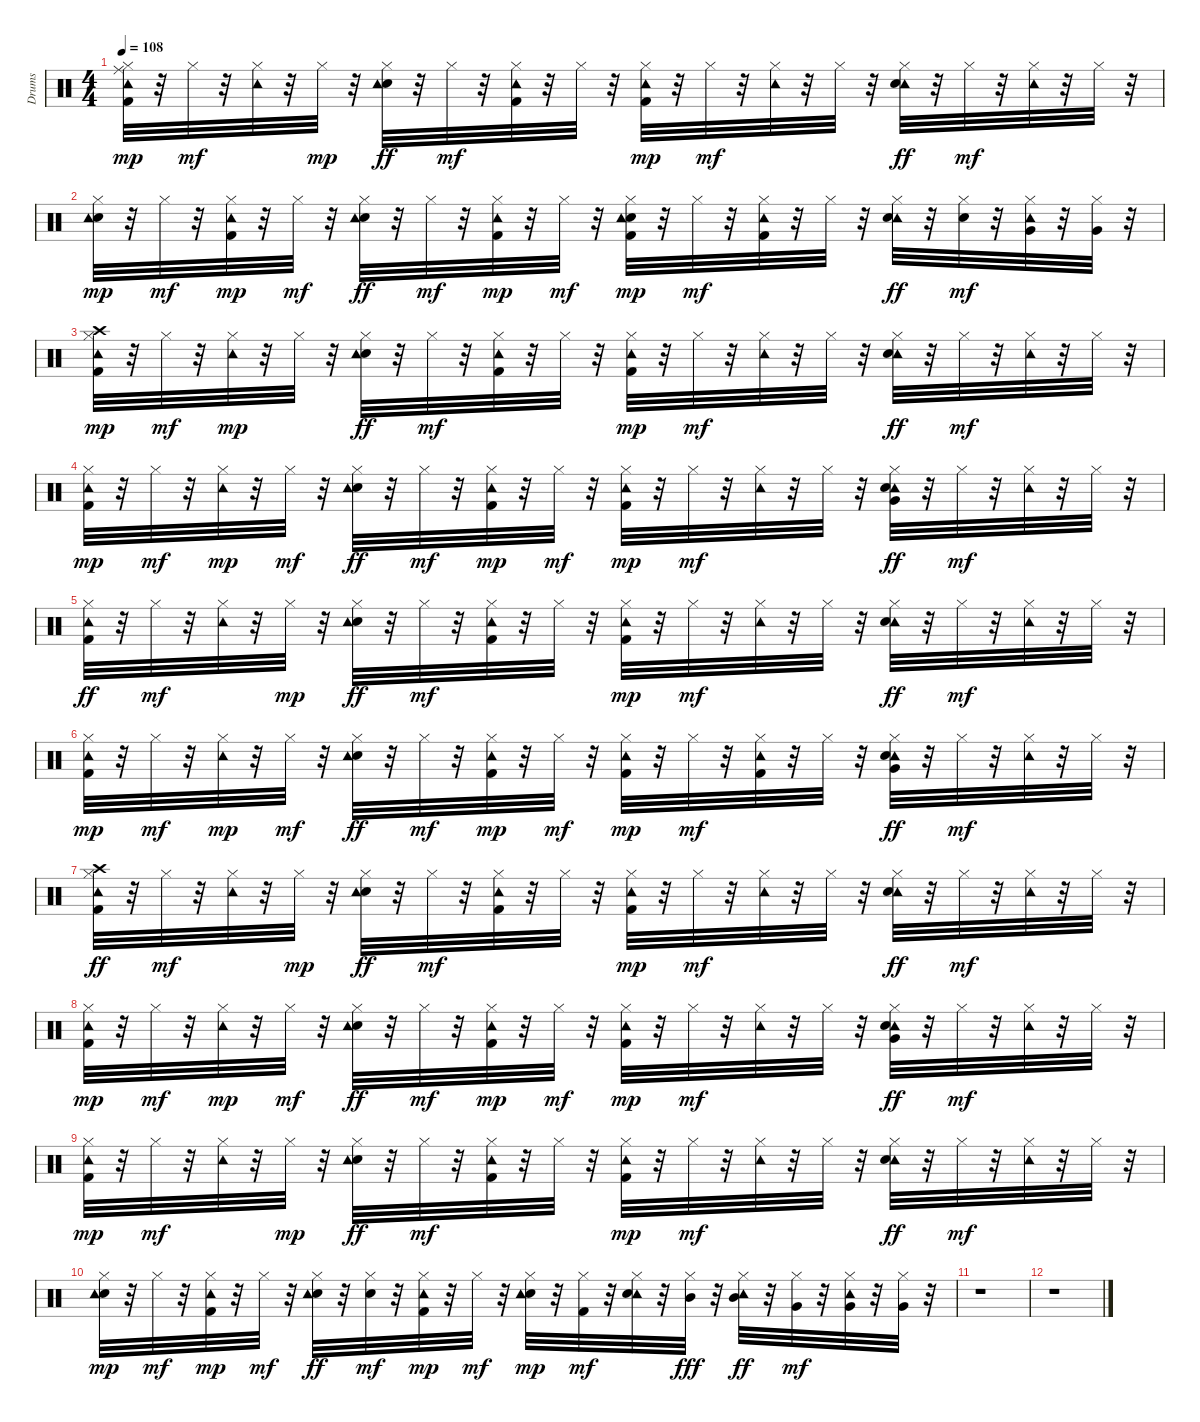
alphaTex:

\track ("Drums               " "Drums     ") {instrument percussion}
\staff {score}
\articulation defaults
\ts (4 4)
\tempo 108
\clef neutral
\ks c
("Kick (hit) 2" "Hi-Hat (closed)" "Ride (middle)" "Tambourine (hit)").32{dy mp} r.32 "Hi-Hat (closed)".32{dy mf} r.32 ("Tambourine (hit)" "Hi-Hat (closed)").32 r.32 "Hi-Hat (closed)".32{dy mp} r.32 ("Snare (hit) 2" "Hi-Hat (closed)" "Tambourine (hit)").32{dy ff} r.32 "Hi-Hat (closed)".32{dy mf} r.32 ("Tambourine (hit)" "Kick (hit) 2" "Hi-Hat (closed)").32 r.32 "Hi-Hat (closed)".32 r.32 ("Kick (hit) 2" "Hi-Hat (closed)" "Tambourine (hit)").32{dy mp} r.32 "Hi-Hat (closed)".32{dy mf} r.32 ("Tambourine (hit)" "Hi-Hat (closed)").32 r.32 "Hi-Hat (closed)".32 r.32 ("Tambourine (hit)" "Snare (hit) 2" "Hi-Hat (closed)").32{dy ff} r.32 "Hi-Hat (closed)".32{dy mf} r.32 ("Tambourine (hit)" "Hi-Hat (closed)").32 r.32 "Hi-Hat (closed)".32 r.32 |
("Hi-Hat (closed)" "Snare (hit) 2" "Tambourine (hit)").32{dy mp} r.32 "Hi-Hat (closed)".32{dy mf} r.32 ("Kick (hit) 2" "Hi-Hat (closed)" "Tambourine (hit)").32{dy mp} r.32 "Hi-Hat (closed)".32{dy mf} r.32 ("Snare (hit) 2" "Hi-Hat (closed)" "Tambourine (hit)").32{dy ff} r.32 "Hi-Hat (closed)".32{dy mf} r.32 ("Kick (hit) 2" "Hi-Hat (closed)" "Tambourine (hit)").32{dy mp} r.32 "Hi-Hat (closed)".32{dy mf} r.32 ("Kick (hit) 2" "Snare (hit) 2" "Hi-Hat (closed)" "Tambourine (hit)").32{dy mp} r.32 "Hi-Hat (closed)".32{dy mf} r.32 ("Tambourine (hit)" "Kick (hit) 2" "Hi-Hat (closed)").32 r.32 "Hi-Hat (closed)".32 r.32 ("Tambourine (hit)" "Snare (hit) 2" "Hi-Hat (closed)").32{dy ff} r.32 ("Snare (hit) 2" "Hi-Hat (closed)").32{dy mf} r.32 ("Tambourine (hit)" "Very Low Tom (hit)" "Hi-Hat (closed)").32 r.32 ("Very Low Tom (hit)" "Hi-Hat (closed)").32 r.32 |
("Kick (hit) 2" "Hi-Hat (closed)" "Crash high (hit)" "Tambourine (hit)").32{dy mp} r.32 "Hi-Hat (closed)".32{dy mf} r.32 ("Hi-Hat (closed)" "Tambourine (hit)").32{dy mp} r.32 "Hi-Hat (closed)".32 r.32 ("Snare (hit) 2" "Hi-Hat (closed)" "Tambourine (hit)").32{dy ff} r.32 "Hi-Hat (closed)".32{dy mf} r.32 ("Tambourine (hit)" "Kick (hit) 2" "Hi-Hat (closed)").32 r.32 "Hi-Hat (closed)".32 r.32 ("Kick (hit) 2" "Hi-Hat (closed)" "Tambourine (hit)").32{dy mp} r.32 "Hi-Hat (closed)".32{dy mf} r.32 ("Tambourine (hit)" "Hi-Hat (closed)").32 r.32 "Hi-Hat (closed)".32 r.32 ("Tambourine (hit)" "Snare (hit) 2" "Hi-Hat (closed)").32{dy ff} r.32 "Hi-Hat (closed)".32{dy mf} r.32 ("Tambourine (hit)" "Hi-Hat (closed)").32 r.32 "Hi-Hat (closed)".32 r.32 |
("Kick (hit) 2" "Hi-Hat (closed)" "Tambourine (hit)").32{dy mp} r.32 "Hi-Hat (closed)".32{dy mf} r.32 ("Hi-Hat (closed)" "Tambourine (hit)").32{dy mp} r.32 "Hi-Hat (closed)".32{dy mf} r.32 ("Snare (hit) 2" "Hi-Hat (closed)" "Tambourine (hit)").32{dy ff} r.32 "Hi-Hat (closed)".32{dy mf} r.32 ("Kick (hit) 2" "Hi-Hat (closed)" "Tambourine (hit)").32{dy mp} r.32 "Hi-Hat (closed)".32{dy mf} r.32 ("Hi-Hat (closed)" "Kick (hit) 2" "Tambourine (hit)").32{dy mp} r.32 "Hi-Hat (closed)".32{dy mf} r.32 ("Tambourine (hit)" "Hi-Hat (closed)").32 r.32 "Hi-Hat (closed)".32 r.32 ("Tambourine (hit)" "Snare (hit) 2" "Very Low Tom (hit)" "Hi-Hat (closed)").32{dy ff} r.32 "Hi-Hat (closed)".32{dy mf} r.32 ("Tambourine (hit)" "Hi-Hat (closed)").32 r.32 "Hi-Hat (closed)".32 r.32 |
("Kick (hit) 2" "Tambourine (hit)" "Hi-Hat (closed)").32{dy ff} r.32 "Hi-Hat (closed)".32{dy mf} r.32 ("Tambourine (hit)" "Hi-Hat (closed)").32 r.32 "Hi-Hat (closed)".32{dy mp} r.32 ("Snare (hit) 2" "Hi-Hat (closed)" "Tambourine (hit)").32{dy ff} r.32 "Hi-Hat (closed)".32{dy mf} r.32 ("Tambourine (hit)" "Kick (hit) 2" "Hi-Hat (closed)").32 r.32 "Hi-Hat (closed)".32 r.32 ("Kick (hit) 2" "Hi-Hat (closed)" "Tambourine (hit)").32{dy mp} r.32 "Hi-Hat (closed)".32{dy mf} r.32 ("Tambourine (hit)" "Hi-Hat (closed)").32 r.32 "Hi-Hat (closed)".32 r.32 ("Tambourine (hit)" "Snare (hit) 2" "Hi-Hat (closed)").32{dy ff} r.32 "Hi-Hat (closed)".32{dy mf} r.32 ("Tambourine (hit)" "Hi-Hat (closed)").32 r.32 "Hi-Hat (closed)".32 r.32 |
("Kick (hit) 2" "Hi-Hat (closed)" "Tambourine (hit)").32{dy mp} r.32 "Hi-Hat (closed)".32{dy mf} r.32 ("Hi-Hat (closed)" "Tambourine (hit)").32{dy mp} r.32 "Hi-Hat (closed)".32{dy mf} r.32 ("Snare (hit) 2" "Hi-Hat (closed)" "Tambourine (hit)").32{dy ff} r.32 "Hi-Hat (closed)".32{dy mf} r.32 ("Kick (hit) 2" "Hi-Hat (closed)" "Tambourine (hit)").32{dy mp} r.32 "Hi-Hat (closed)".32{dy mf} r.32 ("Kick (hit) 2" "Hi-Hat (closed)" "Tambourine (hit)").32{dy mp} r.32 "Hi-Hat (closed)".32{dy mf} r.32 ("Tambourine (hit)" "Kick (hit) 2" "Hi-Hat (closed)").32 r.32 "Hi-Hat (closed)".32 r.32 ("Tambourine (hit)" "Snare (hit) 2" "Very Low Tom (hit)" "Hi-Hat (closed)").32{dy ff} r.32 "Hi-Hat (closed)".32{dy mf} r.32 ("Tambourine (hit)" "Hi-Hat (closed)").32 r.32 "Hi-Hat (closed)".32 r.32 |
("Kick (hit) 2" "Crash high (hit)" "Tambourine (hit)" "Hi-Hat (closed)").32{dy ff} r.32 "Hi-Hat (closed)".32{dy mf} r.32 ("Tambourine (hit)" "Hi-Hat (closed)").32 r.32 "Hi-Hat (closed)".32{dy mp} r.32 ("Hi-Hat (closed)" "Snare (hit) 2" "Tambourine (hit)").32{dy ff} r.32 "Hi-Hat (closed)".32{dy mf} r.32 ("Tambourine (hit)" "Kick (hit) 2" "Hi-Hat (closed)").32 r.32 "Hi-Hat (closed)".32 r.32 ("Kick (hit) 2" "Hi-Hat (closed)" "Tambourine (hit)").32{dy mp} r.32 "Hi-Hat (closed)".32{dy mf} r.32 ("Tambourine (hit)" "Hi-Hat (closed)").32 r.32 "Hi-Hat (closed)".32 r.32 ("Tambourine (hit)" "Snare (hit) 2" "Hi-Hat (closed)").32{dy ff} r.32 "Hi-Hat (closed)".32{dy mf} r.32 ("Tambourine (hit)" "Hi-Hat (closed)").32 r.32 "Hi-Hat (closed)".32 r.32 |
("Kick (hit) 2" "Hi-Hat (closed)" "Tambourine (hit)").32{dy mp} r.32 "Hi-Hat (closed)".32{dy mf} r.32 ("Hi-Hat (closed)" "Tambourine (hit)").32{dy mp} r.32 "Hi-Hat (closed)".32{dy mf} r.32 ("Snare (hit) 2" "Hi-Hat (closed)" "Tambourine (hit)").32{dy ff} r.32 "Hi-Hat (closed)".32{dy mf} r.32 ("Kick (hit) 2" "Hi-Hat (closed)" "Tambourine (hit)").32{dy mp} r.32 "Hi-Hat (closed)".32{dy mf} r.32 ("Kick (hit) 2" "Hi-Hat (closed)" "Tambourine (hit)").32{dy mp} r.32 "Hi-Hat (closed)".32{dy mf} r.32 ("Tambourine (hit)" "Hi-Hat (closed)").32 r.32 "Hi-Hat (closed)".32 r.32 ("Tambourine (hit)" "Snare (hit) 2" "Very Low Tom (hit)" "Hi-Hat (closed)").32{dy ff} r.32 "Hi-Hat (closed)".32{dy mf} r.32 ("Tambourine (hit)" "Hi-Hat (closed)").32 r.32 "Hi-Hat (closed)".32 r.32 |
("Kick (hit) 2" "Hi-Hat (closed)" "Tambourine (hit)").32{dy mp} r.32 "Hi-Hat (closed)".32{dy mf} r.32 ("Tambourine (hit)" "Hi-Hat (closed)").32 r.32 "Hi-Hat (closed)".32{dy mp} r.32 ("Snare (hit) 2" "Hi-Hat (closed)" "Tambourine (hit)").32{dy ff} r.32 "Hi-Hat (closed)".32{dy mf} r.32 ("Tambourine (hit)" "Kick (hit) 2" "Hi-Hat (closed)").32 r.32 "Hi-Hat (closed)".32 r.32 ("Kick (hit) 2" "Hi-Hat (closed)" "Tambourine (hit)").32{dy mp} r.32 "Hi-Hat (closed)".32{dy mf} r.32 ("Tambourine (hit)" "Hi-Hat (closed)").32 r.32 "Hi-Hat (closed)".32 r.32 ("Tambourine (hit)" "Snare (hit) 2" "Hi-Hat (closed)").32{dy ff} r.32 "Hi-Hat (closed)".32{dy mf} r.32 ("Tambourine (hit)" "Hi-Hat (closed)").32 r.32 "Hi-Hat (closed)".32 r.32 |
("Hi-Hat (closed)" "Snare (hit) 2" "Tambourine (hit)").32{dy mp} r.32 "Hi-Hat (closed)".32{dy mf} r.32 ("Kick (hit) 2" "Hi-Hat (closed)" "Tambourine (hit)").32{dy mp} r.32 "Hi-Hat (closed)".32{dy mf} r.32 ("Snare (hit) 2" "Hi-Hat (closed)" "Tambourine (hit)").32{dy ff} r.32 ("Snare (hit) 2" "Hi-Hat (closed)").32{dy mf} r.32 ("Kick (hit) 2" "Hi-Hat (closed)" "Tambourine (hit)").32{dy mp} r.32 "Hi-Hat (closed)".32{dy mf} r.32 ("Snare (hit) 2" "Hi-Hat (closed)" "Tambourine (hit)").32{dy mp} r.32 ("Kick (hit) 2" "Hi-Hat (closed)").32{dy mf} r.32 ("Tambourine (hit)" "Snare (hit) 2" "Hi-Hat (closed)").32 r.32 ("Hi-Hat (closed)" "Mid Tom (hit)").32{dy fff} r.32 ("Tambourine (hit)" "Mid Tom (hit)" "Hi-Hat (closed)").32{dy ff} r.32 ("Very Low Tom (hit)" "Hi-Hat (closed)").32{dy mf} r.32 ("Tambourine (hit)" "Very Low Tom (hit)" "Hi-Hat (closed)").32 r.32 ("Very Low Tom (hit)" "Hi-Hat (closed)").32 r.32 |
r.1 |
r.1
